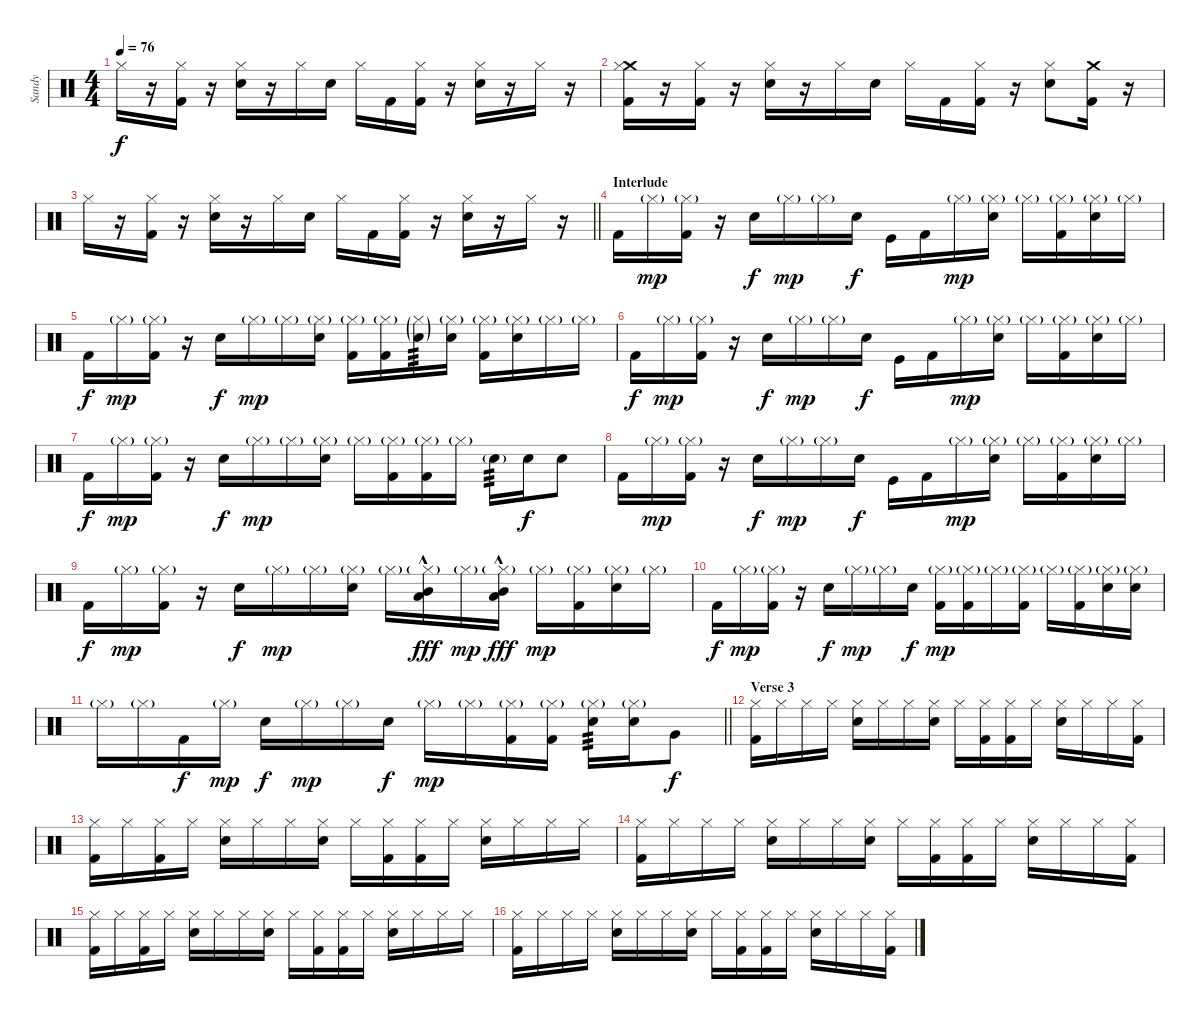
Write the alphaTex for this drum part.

\track ("Sandy" "Sandy") {instrument percussion}
\staff {score}
\articulation defaults
\ts (4 4)
\tempo 76
\clef neutral
\ks c "Hi-Hat (closed)".16{dy f}
r.16 ("Hi-Hat (closed)" "Kick (hit) 2").16 r.16 ("Hi-Hat (closed)" "Electric Snare (hit)").16 r.16 "Hi-Hat (closed)".16 "Electric Snare (hit)".16 "Hi-Hat (closed)".16 "Kick (hit) 2".16 ("Hi-Hat (closed)" "Kick (hit) 2").16 r.16 ("Hi-Hat (closed)" "Electric Snare (hit)").16 r.16 "Hi-Hat (closed)".16 r.16 |
("Crash medium (hit)" "Hi-Hat (closed)" "Kick (hit) 2").16 r.16 ("Hi-Hat (closed)" "Kick (hit) 2").16 r.16 ("Hi-Hat (closed)" "Electric Snare (hit)").16 r.16 "Hi-Hat (closed)".16 "Electric Snare (hit)".16 "Hi-Hat (closed)".16 "Kick (hit) 2".16 ("Hi-Hat (closed)" "Kick (hit) 2").16 r.16 ("Hi-Hat (closed)" "Electric Snare (hit)").8 ("Crash medium (hit)" "Kick (hit) 2").16 r.16 |
\barLineRight lightlight "Hi-Hat (closed)".16
r.16 ("Hi-Hat (closed)" "Kick (hit) 2").16 r.16 ("Hi-Hat (closed)" "Electric Snare (hit)").16 r.16 "Hi-Hat (closed)".16 "Electric Snare (hit)".16 "Hi-Hat (closed)".16 "Kick (hit) 2".16 ("Hi-Hat (closed)" "Kick (hit) 2").16 r.16 ("Hi-Hat (closed)" "Electric Snare (hit)").16 r.16 "Hi-Hat (closed)".16 r.16 |
\section ("" "Interlude")
"Kick (hit) 2".16 "Hi-Hat (closed)"{g}.16{dy mp} ("Hi-Hat (closed)"{g} "Kick (hit) 2").16 r.16 "Electric Snare (hit)".16{dy f} "Hi-Hat (closed)"{g}.16{dy mp} "Hi-Hat (closed)"{g}.16 "Electric Snare (hit)".16{dy f} "Kick (hit)".16 "Kick (hit) 2".16 "Hi-Hat (closed)"{g}.16{dy mp} ("Hi-Hat (closed)"{g} "Electric Snare (hit)").16 "Hi-Hat (closed)"{g}.16 ("Hi-Hat (closed)"{g} "Kick (hit) 2").16 ("Hi-Hat (closed)"{g} "Electric Snare (hit)").16 "Hi-Hat (closed)"{g}.16 |
"Kick (hit) 2".16{dy f} "Hi-Hat (closed)"{g}.16{dy mp} ("Hi-Hat (closed)"{g} "Kick (hit) 2").16 r.16 "Electric Snare (hit)".16{dy f} "Hi-Hat (closed)"{g}.16{dy mp} "Hi-Hat (closed)"{g}.16 ("Hi-Hat (closed)"{g} "Electric Snare (hit)").16 ("Hi-Hat (closed)"{g} "Kick (hit) 2").16 ("Hi-Hat (closed)"{g} "Kick (hit) 2").16 ("Hi-Hat (closed)"{g} "Electric Snare (hit)"{g}).16{tp 3} ("Hi-Hat (closed)"{g} "Electric Snare (hit)").16 ("Hi-Hat (closed)"{g} "Kick (hit) 2").16 ("Hi-Hat (closed)"{g} "Electric Snare (hit)").16 "Hi-Hat (closed)"{g}.16 "Hi-Hat (closed)"{g}.16 |
"Kick (hit) 2".16{dy f} "Hi-Hat (closed)"{g}.16{dy mp} ("Hi-Hat (closed)"{g} "Kick (hit) 2").16 r.16 "Electric Snare (hit)".16{dy f} "Hi-Hat (closed)"{g}.16{dy mp} "Hi-Hat (closed)"{g}.16 "Electric Snare (hit)".16{dy f} "Kick (hit)".16 "Kick (hit) 2".16 "Hi-Hat (closed)"{g}.16{dy mp} ("Hi-Hat (closed)"{g} "Electric Snare (hit)").16 "Hi-Hat (closed)"{g}.16 ("Hi-Hat (closed)"{g} "Kick (hit) 2").16 ("Hi-Hat (closed)"{g} "Electric Snare (hit)").16 "Hi-Hat (closed)"{g}.16 |
"Kick (hit) 2".16{dy f} "Hi-Hat (closed)"{g}.16{dy mp} ("Hi-Hat (closed)"{g} "Kick (hit) 2").16 r.16 "Electric Snare (hit)".16{dy f} "Hi-Hat (closed)"{g}.16{dy mp} "Hi-Hat (closed)"{g}.16 ("Hi-Hat (closed)"{g} "Electric Snare (hit)").16 "Hi-Hat (closed)"{g}.16 ("Hi-Hat (closed)"{g} "Kick (hit) 2").16 ("Hi-Hat (closed)"{g} "Kick (hit) 2").16 "Hi-Hat (closed)"{g}.16 "Electric Snare (hit)"{g}.16{tp 3} "Electric Snare (hit)".16{dy f} "Electric Snare (hit)".8 |
"Kick (hit) 2".16 "Hi-Hat (closed)"{g}.16{dy mp} ("Hi-Hat (closed)"{g} "Kick (hit) 2").16 r.16 "Electric Snare (hit)".16{dy f} "Hi-Hat (closed)"{g}.16{dy mp} "Hi-Hat (closed)"{g}.16 "Electric Snare (hit)".16{dy f} "Kick (hit)".16 "Kick (hit) 2".16 "Hi-Hat (closed)"{g}.16{dy mp} ("Hi-Hat (closed)"{g} "Electric Snare (hit)").16 "Hi-Hat (closed)"{g}.16 ("Hi-Hat (closed)"{g} "Kick (hit) 2").16 ("Hi-Hat (closed)"{g} "Electric Snare (hit)").16 "Hi-Hat (closed)"{g}.16 |
"Kick (hit) 2".16{dy f} "Hi-Hat (closed)"{g}.16{dy mp} ("Hi-Hat (closed)"{g} "Kick (hit) 2").16 r.16 "Electric Snare (hit)".16{dy f} "Hi-Hat (closed)"{g}.16{dy mp} "Hi-Hat (closed)"{g}.16 ("Hi-Hat (closed)"{g} "Electric Snare (hit)").16 "Hi-Hat (closed)"{g}.16 ("Hi-Hat (closed)"{g} "Low Tom (hit)"{hac} "Mid Tom (hit)").16{dy fff} "Hi-Hat (closed)"{g}.16{dy mp} ("Hi-Hat (closed)"{g} "Low Tom (hit)"{hac} "Mid Tom (hit)").16{dy fff} "Hi-Hat (closed)"{g}.16{dy mp} ("Hi-Hat (closed)"{g} "Kick (hit) 2").16 ("Hi-Hat (closed)"{g} "Electric Snare (hit)").16 "Hi-Hat (closed)"{g}.16 |
"Kick (hit) 2".16{dy f} "Hi-Hat (closed)"{g}.16{dy mp} ("Hi-Hat (closed)"{g} "Kick (hit) 2").16 r.16 "Electric Snare (hit)".16{dy f} "Hi-Hat (closed)"{g}.16{dy mp} "Hi-Hat (closed)"{g}.16 "Electric Snare (hit)".16{dy f} ("Hi-Hat (closed)"{g} "Kick (hit) 2").16{dy mp} ("Hi-Hat (closed)"{g} "Kick (hit) 2").16 "Hi-Hat (closed)"{g}.16 ("Hi-Hat (closed)"{g} "Kick (hit) 2").16 "Hi-Hat (closed)"{g}.16 ("Hi-Hat (closed)"{g} "Kick (hit) 2").16 ("Hi-Hat (closed)"{g} "Electric Snare (hit)").16 ("Hi-Hat (closed)"{g} "Electric Snare (hit)").16 |
\barLineRight lightlight "Hi-Hat (closed)"{g}.16 "Hi-Hat (closed)"{g}.16 "Kick (hit) 2".16{dy f} "Hi-Hat (closed)"{g}.16{dy mp} "Electric Snare (hit)".16{dy f} "Hi-Hat (closed)"{g}.16{dy mp} "Hi-Hat (closed)"{g}.16 "Electric Snare (hit)".16{dy f} "Hi-Hat (closed)"{g}.16{dy mp} "Hi-Hat (closed)"{g}.16
("Hi-Hat (closed)"{g} "Kick (hit) 2").16 ("Hi-Hat (closed)"{g} "Kick (hit) 2").16 ("Hi-Hat (closed)"{g} "Electric Snare (hit)").16{tp 3} ("Hi-Hat (closed)"{g} "Electric Snare (hit)").16 "Very Low Tom (hit)".8{dy f} |
\section ("" "Verse 3")
("Hi-Hat (closed)" "Kick (hit) 2").16 "Hi-Hat (closed)".16 "Hi-Hat (closed)".16 "Hi-Hat (closed)".16 ("Hi-Hat (closed)" "Electric Snare (hit)").16 "Hi-Hat (closed)".16 "Hi-Hat (closed)".16 ("Hi-Hat (closed)" "Electric Snare (hit)").16 "Hi-Hat (closed)".16 ("Hi-Hat (closed)" "Kick (hit) 2").16 ("Hi-Hat (closed)" "Kick (hit) 2").16 "Hi-Hat (closed)".16 ("Hi-Hat (closed)" "Electric Snare (hit)").16 "Hi-Hat (closed)".16 "Hi-Hat (closed)".16 ("Hi-Hat (closed)" "Kick (hit) 2").16 |
("Hi-Hat (closed)" "Kick (hit) 2").16 "Hi-Hat (closed)".16 ("Hi-Hat (closed)" "Kick (hit) 2").16 "Hi-Hat (closed)".16 ("Hi-Hat (closed)" "Electric Snare (hit)").16 "Hi-Hat (closed)".16 "Hi-Hat (closed)".16 ("Hi-Hat (closed)" "Electric Snare (hit)").16 "Hi-Hat (closed)".16 ("Hi-Hat (closed)" "Kick (hit) 2").16 ("Hi-Hat (closed)" "Kick (hit) 2").16 "Hi-Hat (closed)".16 ("Hi-Hat (closed)" "Electric Snare (hit)").16 "Hi-Hat (closed)".16 "Hi-Hat (closed)".16 "Hi-Hat (closed)".16 |
("Hi-Hat (closed)" "Kick (hit) 2").16 "Hi-Hat (closed)".16 "Hi-Hat (closed)".16 "Hi-Hat (closed)".16 ("Hi-Hat (closed)" "Electric Snare (hit)").16 "Hi-Hat (closed)".16 "Hi-Hat (closed)".16 ("Hi-Hat (closed)" "Electric Snare (hit)").16 "Hi-Hat (closed)".16 ("Hi-Hat (closed)" "Kick (hit) 2").16 ("Hi-Hat (closed)" "Kick (hit) 2").16 "Hi-Hat (closed)".16 ("Hi-Hat (closed)" "Electric Snare (hit)").16 "Hi-Hat (closed)".16 "Hi-Hat (closed)".16 ("Hi-Hat (closed)" "Kick (hit) 2").16 |
("Hi-Hat (closed)" "Kick (hit) 2").16 "Hi-Hat (closed)".16 ("Hi-Hat (closed)" "Kick (hit) 2").16 "Hi-Hat (closed)".16 ("Hi-Hat (closed)" "Electric Snare (hit)").16 "Hi-Hat (closed)".16 "Hi-Hat (closed)".16 ("Hi-Hat (closed)" "Electric Snare (hit)").16 "Hi-Hat (closed)".16 ("Hi-Hat (closed)" "Kick (hit) 2").16 ("Hi-Hat (closed)" "Kick (hit) 2").16 "Hi-Hat (closed)".16 ("Hi-Hat (closed)" "Electric Snare (hit)").16 "Hi-Hat (closed)".16 "Hi-Hat (closed)".16 "Hi-Hat (closed)".16 |
("Hi-Hat (closed)" "Kick (hit) 2").16 "Hi-Hat (closed)".16 "Hi-Hat (closed)".16 "Hi-Hat (closed)".16 ("Hi-Hat (closed)" "Electric Snare (hit)").16 "Hi-Hat (closed)".16 "Hi-Hat (closed)".16 ("Hi-Hat (closed)" "Electric Snare (hit)").16 "Hi-Hat (closed)".16 ("Hi-Hat (closed)" "Kick (hit) 2").16 ("Hi-Hat (closed)" "Kick (hit) 2").16 "Hi-Hat (closed)".16 ("Hi-Hat (closed)" "Electric Snare (hit)").16 "Hi-Hat (closed)".16 "Hi-Hat (closed)".16 ("Hi-Hat (closed)" "Kick (hit) 2").16
